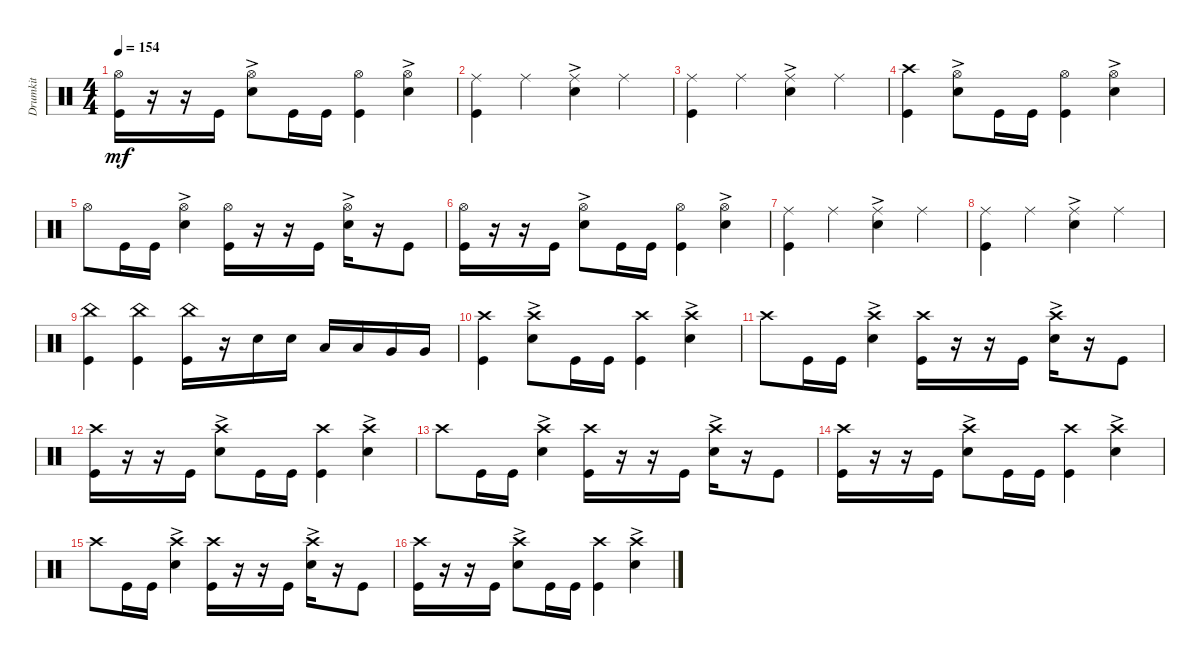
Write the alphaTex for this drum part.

\track ("Drumkit" "Drumkit") {instrument percussion}
\staff {score}
\articulation defaults
\ts (4 4)
\tempo 154
\clef neutral
\ks c
("Kick (hit)" "Hi-Hat (open)").16{dy mf} r.16 r.16 "Kick (hit)".16 ("Snare (hit) 2"{ac} "Hi-Hat (open)").8 "Kick (hit)".16 "Kick (hit)".16 ("Kick (hit)" "Hi-Hat (open)").4 ("Hi-Hat (open)" "Snare (hit) 2"{ac}).4 |
("Ride (middle)" "Kick (hit)").4 "Ride (middle)".4 ("Ride (middle)" "Snare (hit) 2"{ac}).4 "Ride (middle)".4 |
("Ride (middle)" "Kick (hit)").4 "Ride (middle)".4 ("Ride (middle)" "Snare (hit) 2"{ac}).4 "Ride (middle)".4 |
("Crash high (hit)" "Kick (hit)").4 ("Snare (hit) 2"{ac} "Hi-Hat (open)").8 "Kick (hit)".16 "Kick (hit)".16 ("Kick (hit)" "Hi-Hat (open)").4 ("Hi-Hat (open)" "Snare (hit) 2"{ac}).4 |
"Hi-Hat (open)".8 "Kick (hit)".16 "Kick (hit)".16 ("Snare (hit) 2"{ac} "Hi-Hat (open)").4 ("Hi-Hat (open)" "Kick (hit)").16 r.16 r.16 "Kick (hit)".16 ("Snare (hit) 2"{ac} "Hi-Hat (open)").16 r.16 "Kick (hit)".8 |
("Kick (hit)" "Hi-Hat (open)").16 r.16 r.16 "Kick (hit)".16 ("Snare (hit) 2"{ac} "Hi-Hat (open)").8 "Kick (hit)".16 "Kick (hit)".16 ("Kick (hit)" "Hi-Hat (open)").4 ("Hi-Hat (open)" "Snare (hit) 2"{ac}).4 |
("Ride (middle)" "Kick (hit)").4 "Ride (middle)".4 ("Ride (middle)" "Snare (hit) 2"{ac}).4 "Ride (middle)".4 |
("Ride (middle)" "Kick (hit)").4 "Ride (middle)".4 ("Ride (middle)" "Snare (hit) 2"{ac}).4 "Ride (middle)".4 |
("China (hit)" "Kick (hit)").4 ("China (hit)" "Kick (hit)").4 ("China (hit)" "Kick (hit)").16 r.16 "Snare (hit) 2".16 "Snare (hit) 2".16 "Low Tom (hit)".16 "Low Tom (hit)".16 "Very Low Tom (hit)".16 "Very Low Tom (hit)".16 |
("Crash high (hit)" "Kick (hit)").4 ("Snare (hit) 2"{ac} "Crash high (hit)").8 "Kick (hit)".16 "Kick (hit)".16 ("Kick (hit)" "Crash high (hit)").4 ("Snare (hit) 2"{ac} "Crash high (hit)").4 |
"Crash high (hit)".8 "Kick (hit)".16 "Kick (hit)".16 ("Snare (hit) 2"{ac} "Crash high (hit)").4 ("Kick (hit)" "Crash high (hit)").16 r.16 r.16 "Kick (hit)".16 ("Snare (hit) 2"{ac} "Crash high (hit)").16 r.16 "Kick (hit)".8 |
("Kick (hit)" "Crash high (hit)").16 r.16 r.16 "Kick (hit)".16 ("Snare (hit) 2"{ac} "Crash high (hit)").8 "Kick (hit)".16 "Kick (hit)".16 ("Kick (hit)" "Crash high (hit)").4 ("Snare (hit) 2"{ac} "Crash high (hit)").4 |
"Crash high (hit)".8 "Kick (hit)".16 "Kick (hit)".16 ("Snare (hit) 2"{ac} "Crash high (hit)").4 ("Kick (hit)" "Crash high (hit)").16 r.16 r.16 "Kick (hit)".16 ("Snare (hit) 2"{ac} "Crash high (hit)").16 r.16 "Kick (hit)".8 |
("Kick (hit)" "Crash high (hit)").16 r.16 r.16 "Kick (hit)".16 ("Snare (hit) 2"{ac} "Crash high (hit)").8 "Kick (hit)".16 "Kick (hit)".16 ("Kick (hit)" "Crash high (hit)").4 ("Snare (hit) 2"{ac} "Crash high (hit)").4 |
"Crash high (hit)".8 "Kick (hit)".16 "Kick (hit)".16 ("Snare (hit) 2"{ac} "Crash high (hit)").4 ("Kick (hit)" "Crash high (hit)").16 r.16 r.16 "Kick (hit)".16 ("Snare (hit) 2"{ac} "Crash high (hit)").16 r.16 "Kick (hit)".8 |
("Kick (hit)" "Crash high (hit)").16 r.16 r.16 "Kick (hit)".16 ("Snare (hit) 2"{ac} "Crash high (hit)").8 "Kick (hit)".16 "Kick (hit)".16 ("Kick (hit)" "Crash high (hit)").4 ("Snare (hit) 2"{ac} "Crash high (hit)").4
